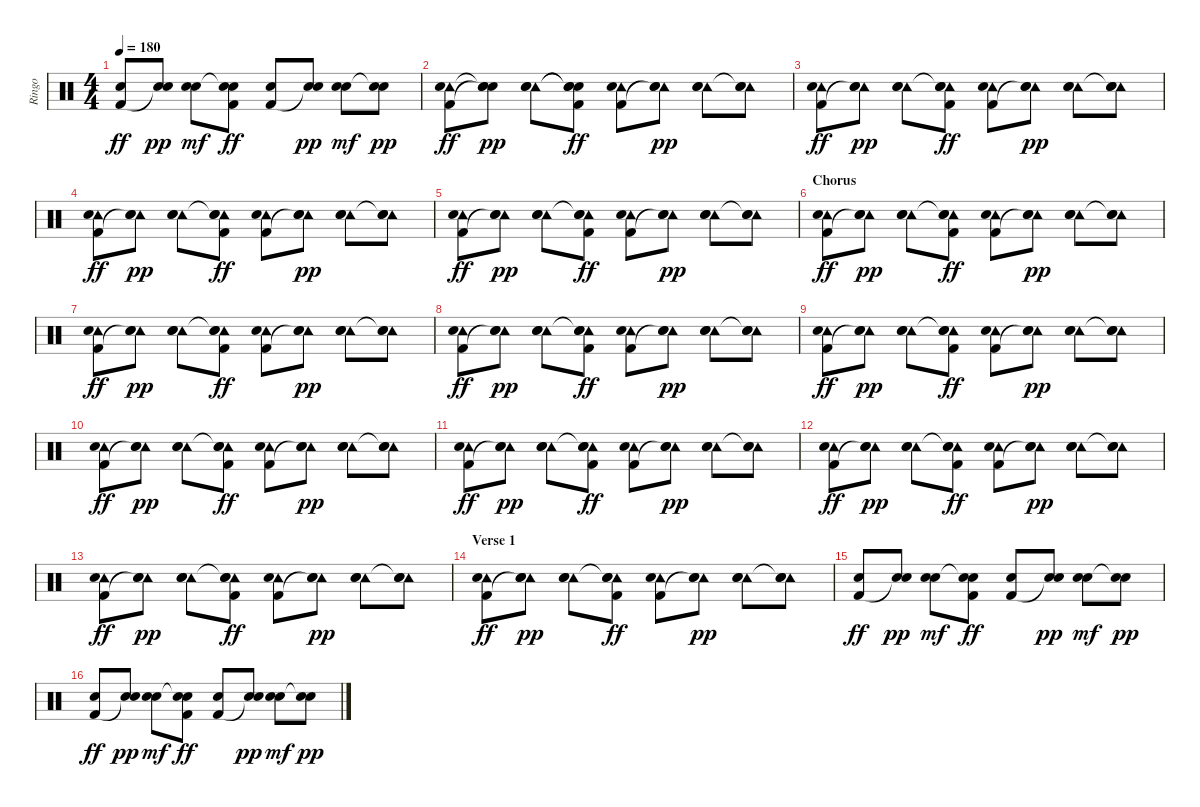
\track ("Ringo" "Ringo") {instrument percussion}
\staff {score}
\articulation defaults
\ts (4 4)
\tempo 180
\clef neutral
\ks c
("Hand Clap (hit)" "Kick (hit) 2").8{dy ff} ("Hand Clap (hit)" "Snare (hit)"{t}).8{dy pp} ("Hand Clap (hit)" "Snare (hit) 2").8{dy mf} ("Hand Clap (hit)" "Snare (hit)"{t} "Kick (hit) 2").8{dy ff} ("Hand Clap (hit)" "Kick (hit) 2").8 ("Hand Clap (hit)" "Snare (hit)"{t}).8{dy pp} ("Hand Clap (hit)" "Snare (hit) 2").8{dy mf} ("Hand Clap (hit)" "Snare (hit)"{t}).8{dy pp} |
("Tambourine (hit)" "Hand Clap (hit)" "Kick (hit) 2").8{dy ff} ("Snare (hit)"{t} "Hand Clap (hit)" "Snare (hit)"{t}).8{dy pp} ("Tambourine (hit)" "Hand Clap (hit)" "Snare (hit) 2").8 ("Snare (hit)"{t} "Hand Clap (hit)" "Snare (hit)"{t} "Kick (hit) 2").8{dy ff} ("Tambourine (hit)" "Hand Clap (hit)" "Kick (hit) 2").8 ("Tambourine (hit)" "Hand Clap (hit)" "Snare (hit)"{t}).8{dy pp} ("Tambourine (hit)" "Hand Clap (hit)" "Snare (hit) 2").8 ("Tambourine (hit)" "Hand Clap (hit)" "Snare (hit)"{t}).8 |
("Tambourine (hit)" "Hand Clap (hit)" "Kick (hit) 2").8{dy ff} ("Tambourine (hit)" "Hand Clap (hit)" "Snare (hit)"{t}).8{dy pp} ("Tambourine (hit)" "Hand Clap (hit)" "Snare (hit) 2").8 ("Tambourine (hit)" "Hand Clap (hit)" "Snare (hit)"{t} "Kick (hit) 2").8{dy ff} ("Tambourine (hit)" "Hand Clap (hit)" "Kick (hit) 2").8 ("Tambourine (hit)" "Hand Clap (hit)" "Snare (hit)"{t}).8{dy pp} ("Tambourine (hit)" "Hand Clap (hit)" "Snare (hit) 2").8 ("Tambourine (hit)" "Hand Clap (hit)" "Snare (hit)"{t}).8 |
("Tambourine (hit)" "Hand Clap (hit)" "Kick (hit) 2").8{dy ff} ("Tambourine (hit)" "Hand Clap (hit)" "Snare (hit)"{t}).8{dy pp} ("Tambourine (hit)" "Hand Clap (hit)" "Snare (hit) 2").8 ("Tambourine (hit)" "Hand Clap (hit)" "Snare (hit)"{t} "Kick (hit) 2").8{dy ff} ("Tambourine (hit)" "Hand Clap (hit)" "Kick (hit) 2").8 ("Tambourine (hit)" "Hand Clap (hit)" "Snare (hit)"{t}).8{dy pp} ("Tambourine (hit)" "Hand Clap (hit)" "Snare (hit) 2").8 ("Tambourine (hit)" "Hand Clap (hit)" "Snare (hit)"{t}).8 |
("Tambourine (hit)" "Hand Clap (hit)" "Kick (hit) 2").8{dy ff} ("Tambourine (hit)" "Hand Clap (hit)" "Snare (hit)"{t}).8{dy pp} ("Tambourine (hit)" "Hand Clap (hit)" "Snare (hit) 2").8 ("Tambourine (hit)" "Hand Clap (hit)" "Snare (hit)"{t} "Kick (hit) 2").8{dy ff} ("Tambourine (hit)" "Hand Clap (hit)" "Kick (hit) 2").8 ("Tambourine (hit)" "Hand Clap (hit)" "Snare (hit)"{t}).8{dy pp} ("Tambourine (hit)" "Hand Clap (hit)" "Snare (hit) 2").8 ("Tambourine (hit)" "Hand Clap (hit)" "Snare (hit)"{t}).8 |
\section ("" "Chorus")
("Tambourine (hit)" "Hand Clap (hit)" "Kick (hit) 2").8{dy ff} ("Tambourine (hit)" "Hand Clap (hit)" "Snare (hit)"{t}).8{dy pp} ("Tambourine (hit)" "Hand Clap (hit)" "Snare (hit) 2").8 ("Tambourine (hit)" "Hand Clap (hit)" "Snare (hit)"{t} "Kick (hit) 2").8{dy ff} ("Tambourine (hit)" "Hand Clap (hit)" "Kick (hit) 2").8 ("Tambourine (hit)" "Hand Clap (hit)" "Snare (hit)"{t}).8{dy pp} ("Tambourine (hit)" "Hand Clap (hit)" "Snare (hit) 2").8 ("Tambourine (hit)" "Hand Clap (hit)" "Snare (hit)"{t}).8 |
("Tambourine (hit)" "Hand Clap (hit)" "Kick (hit) 2").8{dy ff} ("Tambourine (hit)" "Hand Clap (hit)" "Snare (hit)"{t}).8{dy pp} ("Tambourine (hit)" "Hand Clap (hit)" "Snare (hit) 2").8 ("Tambourine (hit)" "Hand Clap (hit)" "Snare (hit)"{t} "Kick (hit) 2").8{dy ff} ("Tambourine (hit)" "Hand Clap (hit)" "Kick (hit) 2").8 ("Tambourine (hit)" "Hand Clap (hit)" "Snare (hit)"{t}).8{dy pp} ("Tambourine (hit)" "Hand Clap (hit)" "Snare (hit) 2").8 ("Tambourine (hit)" "Hand Clap (hit)" "Snare (hit)"{t}).8 |
("Tambourine (hit)" "Hand Clap (hit)" "Kick (hit) 2").8{dy ff} ("Tambourine (hit)" "Hand Clap (hit)" "Snare (hit)"{t}).8{dy pp} ("Tambourine (hit)" "Hand Clap (hit)" "Snare (hit) 2").8 ("Tambourine (hit)" "Hand Clap (hit)" "Snare (hit)"{t} "Kick (hit) 2").8{dy ff} ("Tambourine (hit)" "Hand Clap (hit)" "Kick (hit) 2").8 ("Tambourine (hit)" "Hand Clap (hit)" "Snare (hit)"{t}).8{dy pp} ("Tambourine (hit)" "Hand Clap (hit)" "Snare (hit) 2").8 ("Tambourine (hit)" "Hand Clap (hit)" "Snare (hit)"{t}).8 |
("Tambourine (hit)" "Hand Clap (hit)" "Kick (hit) 2").8{dy ff} ("Tambourine (hit)" "Hand Clap (hit)" "Snare (hit)"{t}).8{dy pp} ("Tambourine (hit)" "Hand Clap (hit)" "Snare (hit) 2").8 ("Tambourine (hit)" "Hand Clap (hit)" "Snare (hit)"{t} "Kick (hit) 2").8{dy ff} ("Tambourine (hit)" "Hand Clap (hit)" "Kick (hit) 2").8 ("Tambourine (hit)" "Hand Clap (hit)" "Snare (hit)"{t}).8{dy pp} ("Tambourine (hit)" "Hand Clap (hit)" "Snare (hit) 2").8 ("Tambourine (hit)" "Hand Clap (hit)" "Snare (hit)"{t}).8 |
("Tambourine (hit)" "Hand Clap (hit)" "Kick (hit) 2").8{dy ff} ("Tambourine (hit)" "Hand Clap (hit)" "Snare (hit)"{t}).8{dy pp} ("Tambourine (hit)" "Hand Clap (hit)" "Snare (hit) 2").8 ("Tambourine (hit)" "Hand Clap (hit)" "Snare (hit)"{t} "Kick (hit) 2").8{dy ff} ("Tambourine (hit)" "Hand Clap (hit)" "Kick (hit) 2").8 ("Tambourine (hit)" "Hand Clap (hit)" "Snare (hit)"{t}).8{dy pp} ("Tambourine (hit)" "Hand Clap (hit)" "Snare (hit) 2").8 ("Tambourine (hit)" "Hand Clap (hit)" "Snare (hit)"{t}).8 |
("Tambourine (hit)" "Hand Clap (hit)" "Kick (hit) 2").8{dy ff} ("Tambourine (hit)" "Hand Clap (hit)" "Snare (hit)"{t}).8{dy pp} ("Tambourine (hit)" "Hand Clap (hit)" "Snare (hit) 2").8 ("Tambourine (hit)" "Hand Clap (hit)" "Snare (hit)"{t} "Kick (hit) 2").8{dy ff} ("Tambourine (hit)" "Hand Clap (hit)" "Kick (hit) 2").8 ("Tambourine (hit)" "Hand Clap (hit)" "Snare (hit)"{t}).8{dy pp} ("Tambourine (hit)" "Hand Clap (hit)" "Snare (hit) 2").8 ("Tambourine (hit)" "Hand Clap (hit)" "Snare (hit)"{t}).8 |
("Tambourine (hit)" "Hand Clap (hit)" "Kick (hit) 2").8{dy ff} ("Tambourine (hit)" "Hand Clap (hit)" "Snare (hit)"{t}).8{dy pp} ("Tambourine (hit)" "Hand Clap (hit)" "Snare (hit) 2").8 ("Tambourine (hit)" "Hand Clap (hit)" "Snare (hit)"{t} "Kick (hit) 2").8{dy ff} ("Tambourine (hit)" "Hand Clap (hit)" "Kick (hit) 2").8 ("Tambourine (hit)" "Hand Clap (hit)" "Snare (hit)"{t}).8{dy pp} ("Tambourine (hit)" "Hand Clap (hit)" "Snare (hit) 2").8 ("Tambourine (hit)" "Hand Clap (hit)" "Snare (hit)"{t}).8 |
("Tambourine (hit)" "Hand Clap (hit)" "Kick (hit) 2").8{dy ff} ("Tambourine (hit)" "Hand Clap (hit)" "Snare (hit)"{t}).8{dy pp} ("Tambourine (hit)" "Hand Clap (hit)" "Snare (hit) 2").8 ("Tambourine (hit)" "Hand Clap (hit)" "Snare (hit)"{t} "Kick (hit) 2").8{dy ff} ("Tambourine (hit)" "Hand Clap (hit)" "Kick (hit) 2").8 ("Tambourine (hit)" "Hand Clap (hit)" "Snare (hit)"{t}).8{dy pp} ("Tambourine (hit)" "Hand Clap (hit)" "Snare (hit) 2").8 ("Tambourine (hit)" "Hand Clap (hit)" "Snare (hit)"{t}).8 |
\section ("" "Verse 1")
("Tambourine (hit)" "Hand Clap (hit)" "Kick (hit) 2").8{dy ff} ("Tambourine (hit)" "Hand Clap (hit)" "Snare (hit)"{t}).8{dy pp} ("Tambourine (hit)" "Hand Clap (hit)" "Snare (hit) 2").8 ("Tambourine (hit)" "Hand Clap (hit)" "Snare (hit)"{t} "Kick (hit) 2").8{dy ff} ("Tambourine (hit)" "Hand Clap (hit)" "Kick (hit) 2").8 ("Tambourine (hit)" "Hand Clap (hit)" "Snare (hit)"{t}).8{dy pp} ("Tambourine (hit)" "Hand Clap (hit)" "Snare (hit) 2").8 ("Tambourine (hit)" "Hand Clap (hit)" "Snare (hit)"{t}).8 |
("Hand Clap (hit)" "Kick (hit) 2").8{dy ff} ("Hand Clap (hit)" "Snare (hit)"{t}).8{dy pp} ("Hand Clap (hit)" "Snare (hit) 2").8{dy mf} ("Hand Clap (hit)" "Snare (hit)"{t} "Kick (hit) 2").8{dy ff} ("Hand Clap (hit)" "Kick (hit) 2").8 ("Hand Clap (hit)" "Snare (hit)"{t}).8{dy pp} ("Hand Clap (hit)" "Snare (hit) 2").8{dy mf} ("Hand Clap (hit)" "Snare (hit)"{t}).8{dy pp} |
("Hand Clap (hit)" "Kick (hit) 2").8{dy ff} ("Hand Clap (hit)" "Snare (hit)"{t}).8{dy pp} ("Hand Clap (hit)" "Snare (hit) 2").8{dy mf} ("Hand Clap (hit)" "Snare (hit)"{t} "Kick (hit) 2").8{dy ff} ("Hand Clap (hit)" "Kick (hit) 2").8 ("Hand Clap (hit)" "Snare (hit)"{t}).8{dy pp} ("Hand Clap (hit)" "Snare (hit) 2").8{dy mf} ("Hand Clap (hit)" "Snare (hit)"{t}).8{dy pp}
